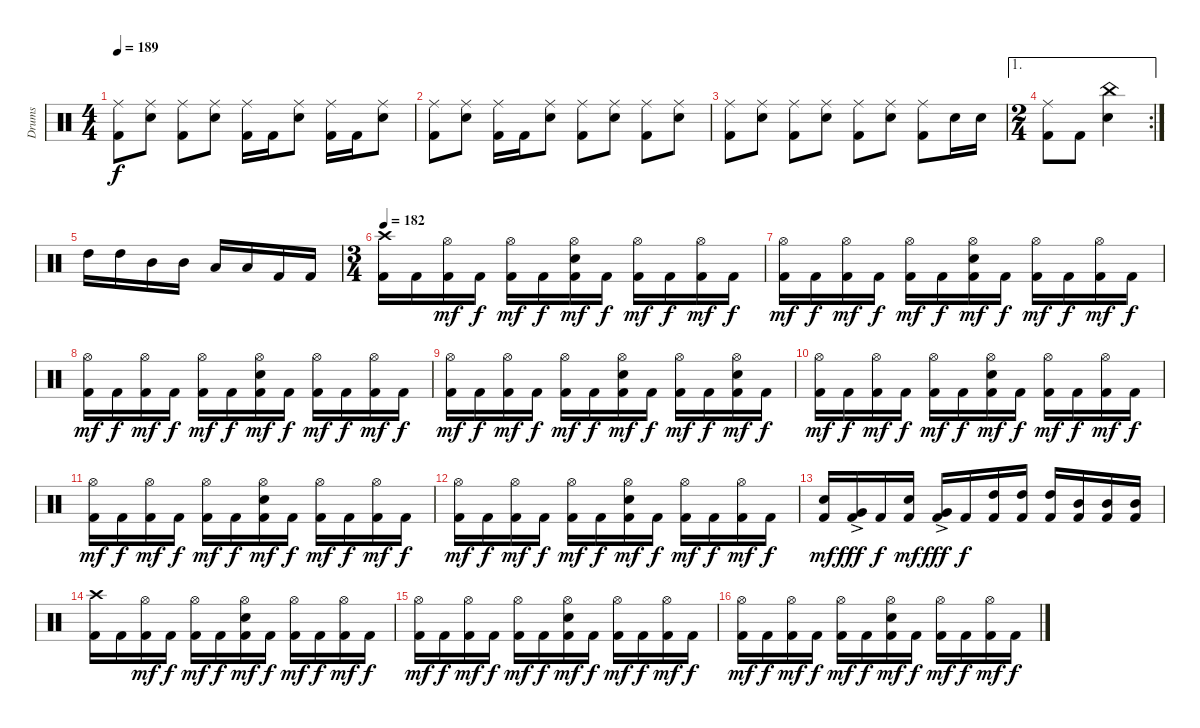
\track ("Drums" "Drums") {instrument percussion}
\staff {score}
\articulation defaults
\ts (4 4)
\tempo 189
\clef neutral
\ks c
("Ride (middle)" "Kick (hit) 2").8{dy f} ("Ride (middle)" "Electric Snare (hit)").8 ("Ride (middle)" "Kick (hit) 2").8 ("Ride (middle)" "Electric Snare (hit)").8 ("Ride (middle)" "Kick (hit) 2").16 "Kick (hit) 2".16 ("Ride (middle)" "Electric Snare (hit)").8 ("Ride (middle)" "Kick (hit) 2").16 "Kick (hit) 2".16 ("Ride (middle)" "Electric Snare (hit)").8 |
("Ride (middle)" "Kick (hit) 2").8 ("Ride (middle)" "Electric Snare (hit)").8 ("Ride (middle)" "Kick (hit) 2").16 "Kick (hit) 2".16 ("Ride (middle)" "Electric Snare (hit)").8 ("Ride (middle)" "Kick (hit) 2").8 ("Ride (middle)" "Electric Snare (hit)").8 ("Ride (middle)" "Kick (hit) 2").8 ("Ride (middle)" "Electric Snare (hit)").8 |
("Ride (middle)" "Kick (hit) 2").8 ("Ride (middle)" "Electric Snare (hit)").8 ("Ride (middle)" "Kick (hit) 2").8 ("Ride (middle)" "Electric Snare (hit)").8 ("Ride (middle)" "Kick (hit) 2").8 ("Ride (middle)" "Electric Snare (hit)").8 ("Ride (middle)" "Kick (hit) 2").8 "Electric Snare (hit)".16 "Electric Snare (hit)".16 |
\ae 1
\rc 2
\ts (2 4)
("Ride (middle)" "Kick (hit) 2").8 "Kick (hit) 2".8 ("China (hit)" "Electric Snare (hit)").4 |
"High Tom (hit)".16 "High Tom (hit)".16 "Mid Tom (hit)".16 "Mid Tom (hit)".16 "Low Tom (hit)".16 "Low Tom (hit)".16 "Kick (hit) 2".16 "Kick (hit) 2".16 |
\ts (3 4)
\tempo 182
("Crash high (hit)" "Kick (hit) 2").16 "Kick (hit) 2".16 ("Hi-Hat (open)" "Kick (hit) 2").16{dy mf} "Kick (hit) 2".16{dy f} ("Hi-Hat (open)" "Kick (hit) 2").16{dy mf} "Kick (hit) 2".16{dy f} ("Hi-Hat (open)" "Electric Snare (hit)" "Kick (hit) 2").16{dy mf} "Kick (hit) 2".16{dy f} ("Hi-Hat (open)" "Kick (hit) 2").16{dy mf} "Kick (hit) 2".16{dy f} ("Hi-Hat (open)" "Kick (hit) 2").16{dy mf} "Kick (hit) 2".16{dy f} |
("Hi-Hat (open)" "Kick (hit) 2").16{dy mf} "Kick (hit) 2".16{dy f} ("Hi-Hat (open)" "Kick (hit) 2").16{dy mf} "Kick (hit) 2".16{dy f} ("Hi-Hat (open)" "Kick (hit) 2").16{dy mf} "Kick (hit) 2".16{dy f} ("Hi-Hat (open)" "Electric Snare (hit)" "Kick (hit) 2").16{dy mf} "Kick (hit) 2".16{dy f} ("Hi-Hat (open)" "Kick (hit) 2").16{dy mf} "Kick (hit) 2".16{dy f} ("Hi-Hat (open)" "Kick (hit) 2").16{dy mf} "Kick (hit) 2".16{dy f} |
("Hi-Hat (open)" "Kick (hit) 2").16{dy mf} "Kick (hit) 2".16{dy f} ("Hi-Hat (open)" "Kick (hit) 2").16{dy mf} "Kick (hit) 2".16{dy f} ("Hi-Hat (open)" "Kick (hit) 2").16{dy mf} "Kick (hit) 2".16{dy f} ("Hi-Hat (open)" "Electric Snare (hit)" "Kick (hit) 2").16{dy mf} "Kick (hit) 2".16{dy f} ("Hi-Hat (open)" "Kick (hit) 2").16{dy mf} "Kick (hit) 2".16{dy f} ("Hi-Hat (open)" "Kick (hit) 2").16{dy mf} "Kick (hit) 2".16{dy f} |
("Hi-Hat (open)" "Kick (hit) 2").16{dy mf} "Kick (hit) 2".16{dy f} ("Hi-Hat (open)" "Kick (hit) 2").16{dy mf} "Kick (hit) 2".16{dy f} ("Hi-Hat (open)" "Kick (hit) 2").16{dy mf} "Kick (hit) 2".16{dy f} ("Hi-Hat (open)" "Electric Snare (hit)" "Kick (hit) 2").16{dy mf} "Kick (hit) 2".16{dy f} ("Hi-Hat (open)" "Kick (hit) 2").16{dy mf} "Kick (hit) 2".16{dy f} ("Hi-Hat (open)" "Electric Snare (hit)" "Kick (hit) 2").16{dy mf} "Kick (hit) 2".16{dy f} |
("Hi-Hat (open)" "Kick (hit) 2").16{dy mf} "Kick (hit) 2".16{dy f} ("Hi-Hat (open)" "Kick (hit) 2").16{dy mf} "Kick (hit) 2".16{dy f} ("Hi-Hat (open)" "Kick (hit) 2").16{dy mf} "Kick (hit) 2".16{dy f} ("Hi-Hat (open)" "Electric Snare (hit)" "Kick (hit) 2").16{dy mf} "Kick (hit) 2".16{dy f} ("Hi-Hat (open)" "Kick (hit) 2").16{dy mf} "Kick (hit) 2".16{dy f} ("Hi-Hat (open)" "Kick (hit) 2").16{dy mf} "Kick (hit) 2".16{dy f} |
("Hi-Hat (open)" "Kick (hit) 2").16{dy mf} "Kick (hit) 2".16{dy f} ("Hi-Hat (open)" "Kick (hit) 2").16{dy mf} "Kick (hit) 2".16{dy f} ("Hi-Hat (open)" "Kick (hit) 2").16{dy mf} "Kick (hit) 2".16{dy f} ("Hi-Hat (open)" "Electric Snare (hit)" "Kick (hit) 2").16{dy mf} "Kick (hit) 2".16{dy f} ("Hi-Hat (open)" "Kick (hit) 2").16{dy mf} "Kick (hit) 2".16{dy f} ("Hi-Hat (open)" "Kick (hit) 2").16{dy mf} "Kick (hit) 2".16{dy f} |
("Hi-Hat (open)" "Kick (hit) 2").16{dy mf} "Kick (hit) 2".16{dy f} ("Hi-Hat (open)" "Kick (hit) 2").16{dy mf} "Kick (hit) 2".16{dy f} ("Hi-Hat (open)" "Kick (hit) 2").16{dy mf} "Kick (hit) 2".16{dy f} ("Hi-Hat (open)" "Electric Snare (hit)" "Kick (hit) 2").16{dy mf} "Kick (hit) 2".16{dy f} ("Hi-Hat (open)" "Kick (hit) 2").16{dy mf} "Kick (hit) 2".16{dy f} ("Hi-Hat (open)" "Kick (hit) 2").16{dy mf} "Kick (hit) 2".16{dy f} |
("Electric Snare (hit)" "Kick (hit) 2").16{dy mf} ("Very Low Tom (hit)"{ac} "Kick (hit) 2").16{dy fff} "Kick (hit) 2".16{dy f} ("Electric Snare (hit)" "Kick (hit) 2").16{dy mf} ("Very Low Tom (hit)"{ac} "Kick (hit) 2").16{dy fff} "Kick (hit) 2".16{dy f} ("High Tom (hit)" "Kick (hit) 2").16 ("High Tom (hit)" "Kick (hit) 2").16 ("High Tom (hit)" "Kick (hit) 2").16 ("Mid Tom (hit)" "Kick (hit) 2").16 ("Mid Tom (hit)" "Kick (hit) 2").16 ("Mid Tom (hit)" "Kick (hit) 2").16 |
("Crash high (hit)" "Kick (hit) 2").16 "Kick (hit) 2".16 ("Hi-Hat (open)" "Kick (hit) 2").16{dy mf} "Kick (hit) 2".16{dy f} ("Hi-Hat (open)" "Kick (hit) 2").16{dy mf} "Kick (hit) 2".16{dy f} ("Hi-Hat (open)" "Electric Snare (hit)" "Kick (hit) 2").16{dy mf} "Kick (hit) 2".16{dy f} ("Hi-Hat (open)" "Kick (hit) 2").16{dy mf} "Kick (hit) 2".16{dy f} ("Hi-Hat (open)" "Kick (hit) 2").16{dy mf} "Kick (hit) 2".16{dy f} |
("Hi-Hat (open)" "Kick (hit) 2").16{dy mf} "Kick (hit) 2".16{dy f} ("Hi-Hat (open)" "Kick (hit) 2").16{dy mf} "Kick (hit) 2".16{dy f} ("Hi-Hat (open)" "Kick (hit) 2").16{dy mf} "Kick (hit) 2".16{dy f} ("Hi-Hat (open)" "Electric Snare (hit)" "Kick (hit) 2").16{dy mf} "Kick (hit) 2".16{dy f} ("Hi-Hat (open)" "Kick (hit) 2").16{dy mf} "Kick (hit) 2".16{dy f} ("Hi-Hat (open)" "Kick (hit) 2").16{dy mf} "Kick (hit) 2".16{dy f} |
("Hi-Hat (open)" "Kick (hit) 2").16{dy mf} "Kick (hit) 2".16{dy f} ("Hi-Hat (open)" "Kick (hit) 2").16{dy mf} "Kick (hit) 2".16{dy f} ("Hi-Hat (open)" "Kick (hit) 2").16{dy mf} "Kick (hit) 2".16{dy f} ("Hi-Hat (open)" "Electric Snare (hit)" "Kick (hit) 2").16{dy mf} "Kick (hit) 2".16{dy f} ("Hi-Hat (open)" "Kick (hit) 2").16{dy mf} "Kick (hit) 2".16{dy f} ("Hi-Hat (open)" "Kick (hit) 2").16{dy mf} "Kick (hit) 2".16{dy f}
